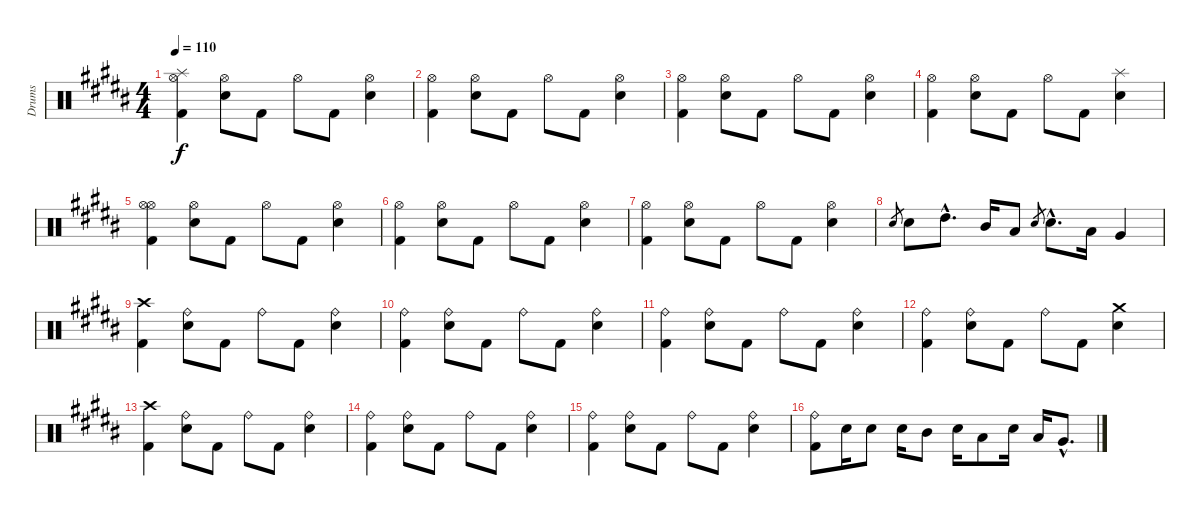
\track ("Drums" "Drums") {instrument percussion}
\staff {score}
\articulation defaults
\ts (4 4)
\section ("" "")
\tempo 110
\clef neutral
\ks b
("Splash (hit)" "Hi-Hat (open)" "Kick (hit) 2").4{dy f} ("Hi-Hat (open)" "Electric Snare (hit)").8 "Kick (hit) 2".8 "Hi-Hat (open)".8 "Kick (hit) 2".8 ("Hi-Hat (open)" "Electric Snare (hit)").4 |
("Hi-Hat (open)" "Kick (hit) 2").4 ("Hi-Hat (open)" "Electric Snare (hit)").8 "Kick (hit) 2".8 "Hi-Hat (open)".8 "Kick (hit) 2".8 ("Hi-Hat (open)" "Electric Snare (hit)").4 |
("Hi-Hat (open)" "Kick (hit) 2").4 ("Hi-Hat (open)" "Electric Snare (hit)").8 "Kick (hit) 2".8 "Hi-Hat (open)".8 "Kick (hit) 2".8 ("Hi-Hat (open)" "Electric Snare (hit)").4 |
("Hi-Hat (open)" "Kick (hit) 2").4 ("Hi-Hat (open)" "Electric Snare (hit)").8 "Kick (hit) 2".8 "Hi-Hat (open)".8 "Kick (hit) 2".8 ("Splash (hit)" "Electric Snare (hit)").4 |
("Hi-Hat (open)" "Hi-Hat (open)" "Kick (hit) 2").4 ("Hi-Hat (open)" "Electric Snare (hit)").8 "Kick (hit) 2".8 "Hi-Hat (open)".8 "Kick (hit) 2".8 ("Hi-Hat (open)" "Electric Snare (hit)").4 |
("Hi-Hat (open)" "Kick (hit) 2").4 ("Hi-Hat (open)" "Electric Snare (hit)").8 "Kick (hit) 2".8 "Hi-Hat (open)".8 "Kick (hit) 2".8 ("Hi-Hat (open)" "Electric Snare (hit)").4 |
("Hi-Hat (open)" "Kick (hit) 2").4 ("Hi-Hat (open)" "Electric Snare (hit)").8 "Kick (hit) 2".8 "Hi-Hat (open)".8 "Kick (hit) 2".8 ("Hi-Hat (open)" "Electric Snare (hit)").4 |
"Electric Snare (hit)".8{gr} "Electric Snare (hit)".8 "High Tom (hit)"{hac}.8{d} "Mid Tom (hit)".16 "Low Tom (hit)".8 "Electric Snare (hit)".8{gr} "Electric Snare (hit)"{hac}.8{d} "Low Tom (hit)".16 "Very Low Tom (hit)".4 |
("Crash high (hit)" "Kick (hit) 2").4 ("Ride (bell)" "Electric Snare (hit)").8 "Kick (hit) 2".8 "Ride (bell)".8 "Kick (hit) 2".8 ("Ride (bell)" "Electric Snare (hit)").4 |
("Ride (bell)" "Kick (hit) 2").4 ("Ride (bell)" "Electric Snare (hit)").8 "Kick (hit) 2".8 "Ride (bell)".8 "Kick (hit) 2".8 ("Ride (bell)" "Electric Snare (hit)").4 |
("Ride (bell)" "Kick (hit) 2").4 ("Ride (bell)" "Electric Snare (hit)").8 "Kick (hit) 2".8 "Ride (bell)".8 "Kick (hit) 2".8 ("Ride (bell)" "Electric Snare (hit)").4 |
("Ride (bell)" "Kick (hit) 2").4 ("Ride (bell)" "Electric Snare (hit)").8 "Kick (hit) 2".8 "Ride (bell)".8 "Kick (hit) 2".8 ("Crash medium (hit)" "Electric Snare (hit)").4 |
("Crash high (hit)" "Kick (hit) 2").4 ("Ride (bell)" "Electric Snare (hit)").8 "Kick (hit) 2".8 "Ride (bell)".8 "Kick (hit) 2".8 ("Ride (bell)" "Electric Snare (hit)").4 |
("Ride (bell)" "Kick (hit) 2").4 ("Ride (bell)" "Electric Snare (hit)").8 "Kick (hit) 2".8 "Ride (bell)".8 "Kick (hit) 2".8 ("Ride (bell)" "Electric Snare (hit)").4 |
("Ride (bell)" "Kick (hit) 2").4 ("Ride (bell)" "Electric Snare (hit)").8 "Kick (hit) 2".8 "Ride (bell)".8 "Kick (hit) 2".8 ("Ride (bell)" "Electric Snare (hit)").4 |
("Ride (bell)" "Kick (hit) 2").8 "Electric Snare (hit)".16 "Electric Snare (hit)".8 "Electric Snare (hit)".16 "Mid Tom (hit)".8 "Electric Snare (hit)".16 "Low Tom (hit)".8 "Electric Snare (hit)".16 "Low Tom (hit)".16 "Very Low Tom (hit)"{hac}.8{d}
